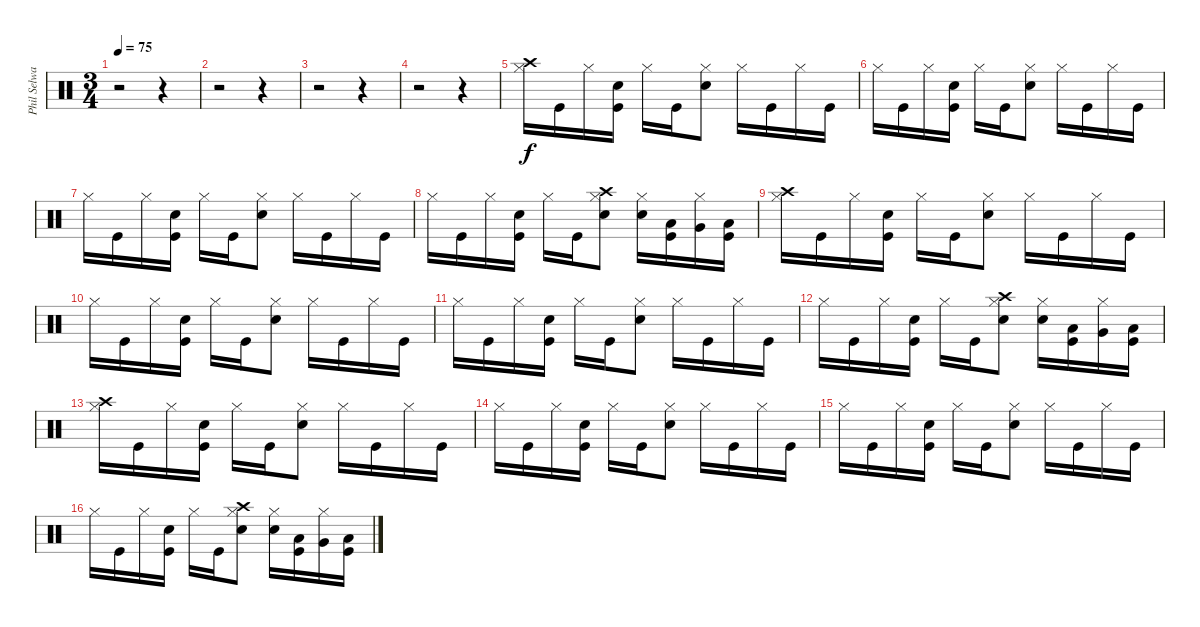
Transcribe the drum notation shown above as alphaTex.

\track ("Phil Selway" "Phil Selwa") {instrument percussion}
\staff {score}
\articulation defaults
\ts (3 4)
\tempo 75
\clef neutral
\ks c
r.2{dy f} r.4 |
r.2 r.4 |
r.2 r.4 |
r.2 r.4 |
("Hi-Hat (closed)" "Crash high (hit)").16 "Kick (hit)".16 "Hi-Hat (closed)".16 ("Kick (hit)" "Snare (hit) 2").16 "Hi-Hat (closed)".16 "Kick (hit)".16 ("Snare (hit) 2" "Hi-Hat (closed)").8 "Hi-Hat (closed)".16 "Kick (hit)".16 "Hi-Hat (closed)".16 "Kick (hit)".16 |
"Hi-Hat (closed)".16 "Kick (hit)".16 "Hi-Hat (closed)".16 ("Kick (hit)" "Snare (hit) 2").16 "Hi-Hat (closed)".16 "Kick (hit)".16 ("Snare (hit) 2" "Hi-Hat (closed)").8 "Hi-Hat (closed)".16 "Kick (hit)".16 "Hi-Hat (closed)".16 "Kick (hit)".16 |
"Hi-Hat (closed)".16 "Kick (hit)".16 "Hi-Hat (closed)".16 ("Kick (hit)" "Snare (hit) 2").16 "Hi-Hat (closed)".16 "Kick (hit)".16 ("Snare (hit) 2" "Hi-Hat (closed)").8 "Hi-Hat (closed)".16 "Kick (hit)".16 "Hi-Hat (closed)".16 "Kick (hit)".16 |
"Hi-Hat (closed)".16 "Kick (hit)".16 "Hi-Hat (closed)".16 ("Kick (hit)" "Snare (hit) 2").16 "Hi-Hat (closed)".16 "Kick (hit)".16 ("Snare (hit) 2" "Hi-Hat (closed)" "Crash high (hit)").8 ("Snare (hit) 2" "Hi-Hat (closed)").16 ("Kick (hit)" "Low Tom (hit)").16 ("Hi-Hat (closed)" "Very Low Tom (hit)").16 ("Kick (hit)" "Low Floor Tom (hit)").16 |
("Hi-Hat (closed)" "Crash high (hit)").16 "Kick (hit)".16 "Hi-Hat (closed)".16 ("Kick (hit)" "Snare (hit) 2").16 "Hi-Hat (closed)".16 "Kick (hit)".16 ("Snare (hit) 2" "Hi-Hat (closed)").8 "Hi-Hat (closed)".16 "Kick (hit)".16 "Hi-Hat (closed)".16 "Kick (hit)".16 |
"Hi-Hat (closed)".16 "Kick (hit)".16 "Hi-Hat (closed)".16 ("Kick (hit)" "Snare (hit) 2").16 "Hi-Hat (closed)".16 "Kick (hit)".16 ("Snare (hit) 2" "Hi-Hat (closed)").8 "Hi-Hat (closed)".16 "Kick (hit)".16 "Hi-Hat (closed)".16 "Kick (hit)".16 |
"Hi-Hat (closed)".16 "Kick (hit)".16 "Hi-Hat (closed)".16 ("Kick (hit)" "Snare (hit) 2").16 "Hi-Hat (closed)".16 "Kick (hit)".16 ("Snare (hit) 2" "Hi-Hat (closed)").8 "Hi-Hat (closed)".16 "Kick (hit)".16 "Hi-Hat (closed)".16 "Kick (hit)".16 |
"Hi-Hat (closed)".16 "Kick (hit)".16 "Hi-Hat (closed)".16 ("Kick (hit)" "Snare (hit) 2").16 "Hi-Hat (closed)".16 "Kick (hit)".16 ("Snare (hit) 2" "Hi-Hat (closed)" "Crash high (hit)").8 ("Snare (hit) 2" "Hi-Hat (closed)").16 ("Kick (hit)" "Low Tom (hit)").16 ("Hi-Hat (closed)" "Very Low Tom (hit)").16 ("Kick (hit)" "Low Floor Tom (hit)").16 |
("Hi-Hat (closed)" "Crash high (hit)").16 "Kick (hit)".16 "Hi-Hat (closed)".16 ("Kick (hit)" "Snare (hit) 2").16 "Hi-Hat (closed)".16 "Kick (hit)".16 ("Snare (hit) 2" "Hi-Hat (closed)").8 "Hi-Hat (closed)".16 "Kick (hit)".16 "Hi-Hat (closed)".16 "Kick (hit)".16 |
"Hi-Hat (closed)".16 "Kick (hit)".16 "Hi-Hat (closed)".16 ("Kick (hit)" "Snare (hit) 2").16 "Hi-Hat (closed)".16 "Kick (hit)".16 ("Snare (hit) 2" "Hi-Hat (closed)").8 "Hi-Hat (closed)".16 "Kick (hit)".16 "Hi-Hat (closed)".16 "Kick (hit)".16 |
"Hi-Hat (closed)".16 "Kick (hit)".16 "Hi-Hat (closed)".16 ("Kick (hit)" "Snare (hit) 2").16 "Hi-Hat (closed)".16 "Kick (hit)".16 ("Snare (hit) 2" "Hi-Hat (closed)").8 "Hi-Hat (closed)".16 "Kick (hit)".16 "Hi-Hat (closed)".16 "Kick (hit)".16 |
"Hi-Hat (closed)".16 "Kick (hit)".16 "Hi-Hat (closed)".16 ("Kick (hit)" "Snare (hit) 2").16 "Hi-Hat (closed)".16 "Kick (hit)".16 ("Snare (hit) 2" "Hi-Hat (closed)" "Crash high (hit)").8 ("Snare (hit) 2" "Hi-Hat (closed)").16 ("Kick (hit)" "Low Tom (hit)").16 ("Hi-Hat (closed)" "Very Low Tom (hit)").16 ("Kick (hit)" "Low Floor Tom (hit)").16
